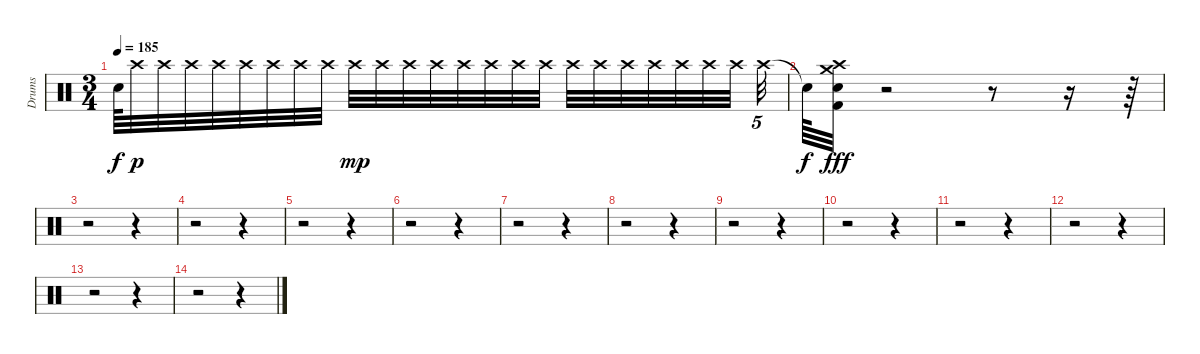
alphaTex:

\track ("Drums" "Drums") {instrument percussion}
\staff {score}
\articulation defaults
\ts (3 4)
\tempo 185
\clef neutral
\ks c "Snare (hit)"{t}.64{dy f} "Crash high (hit)".32{dy p} "Crash high (hit)".32 "Crash high (hit)".32 "Crash high (hit)".32 "Crash high (hit)".32 "Crash high (hit)".32 "Crash high (hit)".32 "Crash high (hit)".32 "Crash high (hit)".32{dy mp} "Crash high (hit)".32 "Crash high (hit)".32 "Crash high (hit)".32 "Crash high (hit)".32 "Crash high (hit)".32 "Crash high (hit)".32 "Crash high (hit)".32 "Crash high (hit)".32 "Crash high (hit)".32 "Crash high (hit)".32 "Crash high (hit)".32 "Crash high (hit)".32 "Crash high (hit)".32 "Crash high (hit)".32{beam splitsecondary} "Crash high (hit)".32{tu (5 4)}
|
"Snare (hit)"{t}.64{dy f} ("Crash medium (hit)" "Electric Snare (hit)" "Kick (hit) 2" "Crash high (hit)").32{dy fff} r.2 r.8 r.16 r.64 |
r.2 r.4 |
r.2 r.4 |
r.2 r.4 |
r.2 r.4 |
r.2 r.4 |
r.2 r.4 |
r.2 r.4 |
r.2 r.4 |
r.2 r.4 |
r.2 r.4 |
r.2 r.4 |
r.2 r.4
